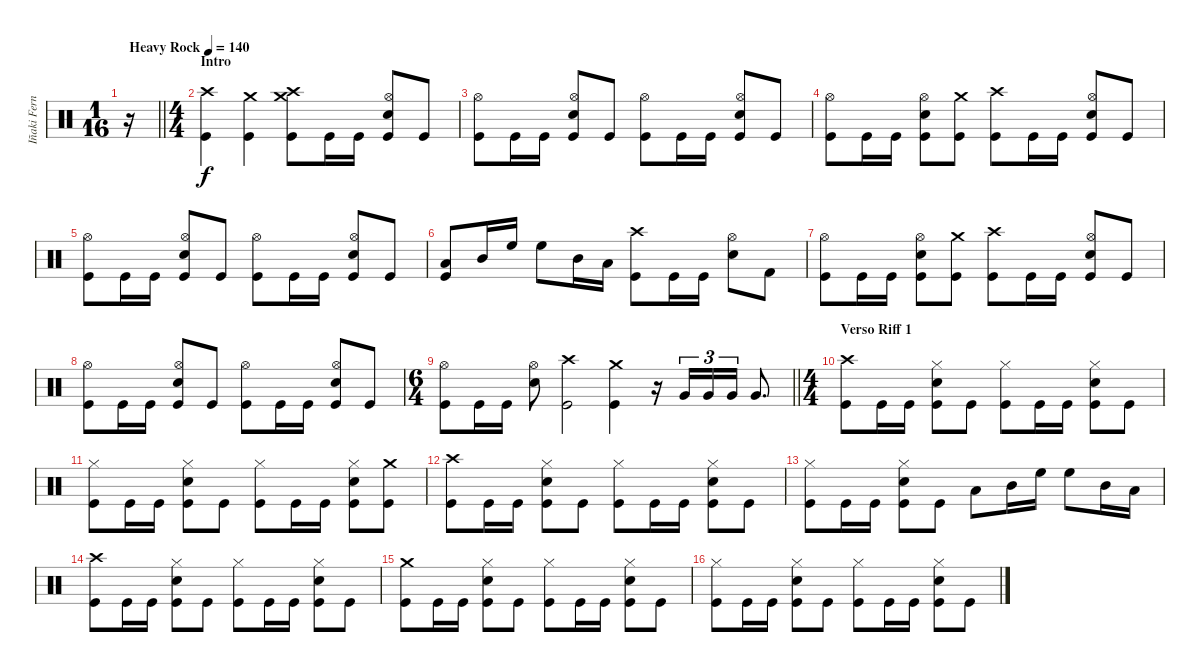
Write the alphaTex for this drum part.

\track ("Iñaki Fernández" "Iñaki Fern") {instrument percussion}
\staff {score}
\articulation defaults
\ts (1 16)
\tempo (140 "Heavy Rock")
\clef neutral
\barLineRight lightlight
\ks c
r.16{dy f} |
\ts (4 4)
\section ("" "Intro")
("Crash high (hit)" "Kick (hit)").4 ("Crash medium (hit)" "Kick (hit)").4 ("Crash medium (hit)" "Crash high (hit)" "Kick (hit)").8 "Kick (hit)".16 "Kick (hit)".16 ("Hi-Hat (open)" "Snare (hit) 2" "Kick (hit)").8 "Kick (hit)".8 |
("Hi-Hat (open)" "Kick (hit)").8 "Kick (hit)".16 "Kick (hit)".16 ("Hi-Hat (open)" "Snare (hit) 2" "Kick (hit)").8 "Kick (hit)".8 ("Hi-Hat (open)" "Kick (hit)").8 "Kick (hit)".16 "Kick (hit)".16 ("Hi-Hat (open)" "Snare (hit) 2" "Kick (hit)").8 "Kick (hit)".8 |
("Hi-Hat (open)" "Kick (hit)").8 "Kick (hit)".16 "Kick (hit)".16 ("Hi-Hat (open)" "Snare (hit) 2" "Kick (hit)").8 ("Crash medium (hit)" "Kick (hit)").8 ("Crash high (hit)" "Kick (hit)").8 "Kick (hit)".16 "Kick (hit)".16 ("Hi-Hat (open)" "Snare (hit) 2" "Kick (hit)").8 "Kick (hit)".8 |
("Hi-Hat (open)" "Kick (hit)").8 "Kick (hit)".16 "Kick (hit)".16 ("Hi-Hat (open)" "Snare (hit) 2" "Kick (hit)").8 "Kick (hit)".8 ("Hi-Hat (open)" "Kick (hit)").8 "Kick (hit)".16 "Kick (hit)".16 ("Hi-Hat (open)" "Snare (hit) 2" "Kick (hit)").8 "Kick (hit)".8 |
("Low Tom (hit)" "Kick (hit)").8 "Mid Tom (hit)".16 "High Floor Tom (hit)".16 "High Floor Tom (hit)".8 "Mid Tom (hit)".16 "Low Tom (hit)".16 ("Crash high (hit)" "Kick (hit)").8 "Kick (hit)".16 "Kick (hit)".16 ("Hi-Hat (open)" "Snare (hit) 2").8 "Kick (hit) 2".8 |
("Hi-Hat (open)" "Kick (hit)").8 "Kick (hit)".16 "Kick (hit)".16 ("Hi-Hat (open)" "Snare (hit) 2" "Kick (hit)").8 ("Crash medium (hit)" "Kick (hit)").8 ("Crash high (hit)" "Kick (hit)").8 "Kick (hit)".16 "Kick (hit)".16 ("Hi-Hat (open)" "Snare (hit) 2" "Kick (hit)").8 "Kick (hit)".8 |
("Hi-Hat (open)" "Kick (hit)").8 "Kick (hit)".16 "Kick (hit)".16 ("Hi-Hat (open)" "Snare (hit) 2" "Kick (hit)").8 "Kick (hit)".8 ("Hi-Hat (open)" "Kick (hit)").8 "Kick (hit)".16 "Kick (hit)".16 ("Hi-Hat (open)" "Snare (hit) 2" "Kick (hit)").8 "Kick (hit)".8 |
\ts (6 4)
\barLineRight lightlight
("Hi-Hat (open)" "Kick (hit)").8 "Kick (hit)".16 "Kick (hit)".16 ("Hi-Hat (open)" "Snare (hit) 2").8 ("Crash high (hit)" "Kick (hit)").2 ("Crash medium (hit)" "Kick (hit)").4 r.16 "Very Low Tom (hit)".16{tu (3 2)} "Very Low Tom (hit)".16{tu (3 2)} "Very Low Tom (hit)".16{tu (3 2)} "Very Low Tom (hit)".8{d} |
\ts (4 4)
\section ("" "Verso Riff 1")
("Crash high (hit)" "Kick (hit)").8 "Kick (hit)".16 "Kick (hit)".16 ("Hi-Hat (closed)" "Snare (hit) 2" "Kick (hit)").8 "Kick (hit)".8 ("Hi-Hat (closed)" "Kick (hit)").8 "Kick (hit)".16 "Kick (hit)".16 ("Hi-Hat (closed)" "Snare (hit) 2" "Kick (hit)").8 "Kick (hit)".8 |
("Hi-Hat (closed)" "Kick (hit)").8 "Kick (hit)".16 "Kick (hit)".16 ("Hi-Hat (closed)" "Snare (hit) 2" "Kick (hit)").8 "Kick (hit)".8 ("Hi-Hat (closed)" "Kick (hit)").8 "Kick (hit)".16 "Kick (hit)".16 ("Hi-Hat (closed)" "Snare (hit) 2" "Kick (hit)").8 ("Crash medium (hit)" "Kick (hit)").8 |
("Crash high (hit)" "Kick (hit)").8 "Kick (hit)".16 "Kick (hit)".16 ("Hi-Hat (closed)" "Snare (hit) 2" "Kick (hit)").8 "Kick (hit)".8 ("Hi-Hat (closed)" "Kick (hit)").8 "Kick (hit)".16 "Kick (hit)".16 ("Hi-Hat (closed)" "Snare (hit) 2" "Kick (hit)").8 "Kick (hit)".8 |
("Hi-Hat (closed)" "Kick (hit)").8 "Kick (hit)".16 "Kick (hit)".16 ("Hi-Hat (closed)" "Snare (hit) 2" "Kick (hit)").8 "Kick (hit)".8 "Low Tom (hit)".8 "Mid Tom (hit)".16 "High Floor Tom (hit)".16 "High Floor Tom (hit)".8 "Mid Tom (hit)".16 "Low Tom (hit)".16 |
("Crash high (hit)" "Kick (hit)").8 "Kick (hit)".16 "Kick (hit)".16 ("Hi-Hat (closed)" "Snare (hit) 2" "Kick (hit)").8 "Kick (hit)".8 ("Hi-Hat (closed)" "Kick (hit)").8 "Kick (hit)".16 "Kick (hit)".16 ("Hi-Hat (closed)" "Snare (hit) 2" "Kick (hit)").8 "Kick (hit)".8 |
("Crash medium (hit)" "Kick (hit)").8 "Kick (hit)".16 "Kick (hit)".16 ("Hi-Hat (closed)" "Snare (hit) 2" "Kick (hit)").8 "Kick (hit)".8 ("Hi-Hat (closed)" "Kick (hit)").8 "Kick (hit)".16 "Kick (hit)".16 ("Hi-Hat (closed)" "Snare (hit) 2" "Kick (hit)").8 "Kick (hit)".8 |
("Hi-Hat (closed)" "Kick (hit)").8 "Kick (hit)".16 "Kick (hit)".16 ("Hi-Hat (closed)" "Snare (hit) 2" "Kick (hit)").8 "Kick (hit)".8 ("Hi-Hat (closed)" "Kick (hit)").8 "Kick (hit)".16 "Kick (hit)".16 ("Hi-Hat (closed)" "Snare (hit) 2" "Kick (hit)").8 "Kick (hit)".8
